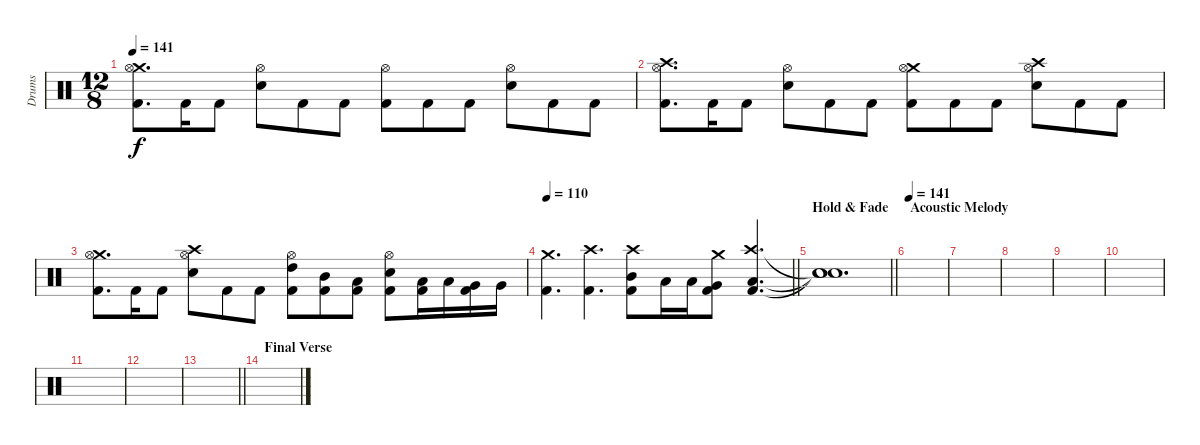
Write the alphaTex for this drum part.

\track ("Drums" "Drums") {instrument percussion}
\staff {score}
\articulation defaults
\ts (12 8)
\tempo 141
\clef neutral
\ks c
("Crash medium (hit)" "Hi-Hat (open)" "Kick (hit) 2").8{d dy f} "Kick (hit) 2".16 "Kick (hit) 2".8 ("Hi-Hat (open)" "Snare (hit) 2").8 "Kick (hit) 2".8 "Kick (hit) 2".8 ("Hi-Hat (open)" "Kick (hit) 2").8 "Kick (hit) 2".8 "Kick (hit) 2".8 ("Hi-Hat (open)" "Snare (hit) 2").8 "Kick (hit) 2".8 "Kick (hit) 2".8 |
("Crash high (hit)" "Hi-Hat (open)" "Kick (hit) 2").8{d} "Kick (hit) 2".16 "Kick (hit) 2".8 ("Hi-Hat (open)" "Snare (hit) 2").8 "Kick (hit) 2".8 "Kick (hit) 2".8 ("Crash medium (hit)" "Hi-Hat (open)" "Kick (hit) 2").8 "Kick (hit) 2".8 "Kick (hit) 2".8 ("Crash high (hit)" "Hi-Hat (open)" "Snare (hit) 2").8 "Kick (hit) 2".8 "Kick (hit) 2".8 |
("Crash medium (hit)" "Hi-Hat (open)" "Kick (hit) 2").8{d} "Kick (hit) 2".16 "Kick (hit) 2".8 ("Crash high (hit)" "Hi-Hat (open)" "Snare (hit) 2").8 "Kick (hit) 2".8 "Kick (hit) 2".8 ("Hi-Hat (open)" "High Tom (hit)" "Kick (hit) 2").8 ("Mid Tom (hit)" "Kick (hit) 2").8 ("Low Tom (hit)" "Kick (hit) 2").8 ("Hi-Hat (open)" "Snare (hit) 2" "Kick (hit) 2").8 ("Low Tom (hit)" "Kick (hit) 2").16 "Low Tom (hit)".16 ("Very Low Tom (hit)" "Kick (hit) 2").16 "Very Low Tom (hit)".16 |
\tempo 110
\barLineRight lightlight
("Crash medium (hit)" "Kick (hit) 2").4{d} ("Crash high (hit)" "Kick (hit) 2").4{d} ("Crash high (hit)" "Mid Tom (hit)" "Kick (hit) 2").8 "Low Tom (hit)".16 "Low Tom (hit)".16 ("Crash medium (hit)" "Very Low Tom (hit)" "Kick (hit) 2").8 ("Crash high (hit)" "Low Floor Tom (hit)" "Kick (hit) 2").4{d} |
\section ("" "Hold & Fade")
\barLineRight lightlight
("Snare (hit)"{t} "Snare (hit)"{t} "Snare (hit)"{t}).1{d} |
\section ("" "Acoustic Melody")
\tempo 141
|
|
|
|
|
|
|
\barLineRight lightlight
|
\section ("" "Final Verse")
